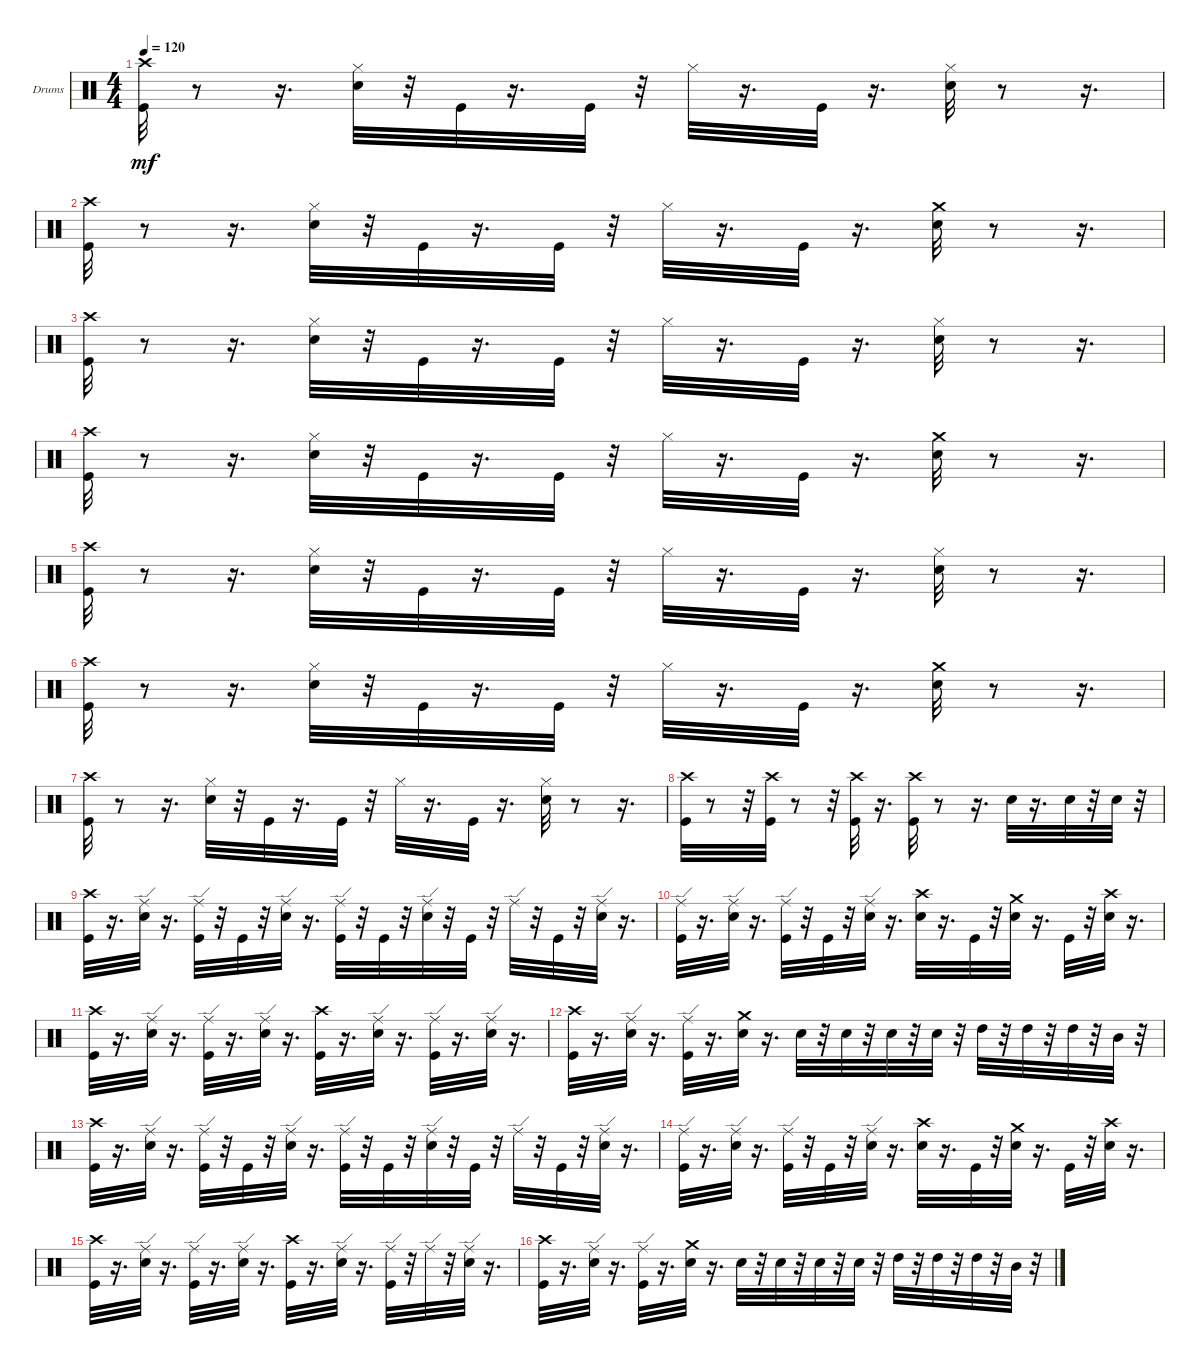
\bracketExtendMode groupsimilarinstruments
\firstSystemTrackNameOrientation horizontal
\otherSystemsTrackNameOrientation horizontal
\track ("" "Drums") {instrument percussion}
\staff {score}
\articulation defaults
\ts (4 4)
\tempo 120
\clef neutral
\ks c
("Crash high (hit)" "Kick (hit)").32{dy mf} r.8 r.16{d} ("Snare (hit) 2" "Hi-Hat (closed)").32 r.32 "Kick (hit)".32 r.16{d} "Kick (hit)".32 r.32 "Hi-Hat (closed)".32 r.16{d} "Kick (hit)".32 r.16{d} ("Snare (hit) 2" "Hi-Hat (closed)").32 r.8 r.16{d} |
("Crash high (hit)" "Kick (hit)").32 r.8 r.16{d} ("Snare (hit) 2" "Hi-Hat (closed)").32 r.32 "Kick (hit)".32 r.16{d} "Kick (hit)".32 r.32 "Hi-Hat (closed)".32 r.16{d} "Kick (hit)".32 r.16{d} ("Crash medium (hit)" "Snare (hit) 2").32 r.8 r.16{d} |
("Crash high (hit)" "Kick (hit)").32 r.8 r.16{d} ("Snare (hit) 2" "Hi-Hat (closed)").32 r.32 "Kick (hit)".32 r.16{d} "Kick (hit)".32 r.32 "Hi-Hat (closed)".32 r.16{d} "Kick (hit)".32 r.16{d} ("Snare (hit) 2" "Hi-Hat (closed)").32 r.8 r.16{d} |
("Crash high (hit)" "Kick (hit)").32 r.8 r.16{d} ("Snare (hit) 2" "Hi-Hat (closed)").32 r.32 "Kick (hit)".32 r.16{d} "Kick (hit)".32 r.32 "Hi-Hat (closed)".32 r.16{d} "Kick (hit)".32 r.16{d} ("Crash medium (hit)" "Snare (hit) 2").32 r.8 r.16{d} |
("Crash high (hit)" "Kick (hit)").32 r.8 r.16{d} ("Snare (hit) 2" "Hi-Hat (closed)").32 r.32 "Kick (hit)".32 r.16{d} "Kick (hit)".32 r.32 "Hi-Hat (closed)".32 r.16{d} "Kick (hit)".32 r.16{d} ("Snare (hit) 2" "Hi-Hat (closed)").32 r.8 r.16{d} |
("Crash high (hit)" "Kick (hit)").32 r.8 r.16{d} ("Snare (hit) 2" "Hi-Hat (closed)").32 r.32 "Kick (hit)".32 r.16{d} "Kick (hit)".32 r.32 "Hi-Hat (closed)".32 r.16{d} "Kick (hit)".32 r.16{d} ("Crash medium (hit)" "Snare (hit) 2").32 r.8 r.16{d} |
("Crash high (hit)" "Kick (hit)").32 r.8 r.16{d} ("Snare (hit) 2" "Hi-Hat (closed)").32 r.32 "Kick (hit)".32 r.16{d} "Kick (hit)".32 r.32 "Hi-Hat (closed)".32 r.16{d} "Kick (hit)".32 r.16{d} ("Snare (hit) 2" "Hi-Hat (closed)").32 r.8 r.16{d} |
("Crash high (hit)" "Kick (hit)").32 r.8 r.32 ("Crash high (hit)" "Kick (hit)").32 r.8 r.32 ("Crash high (hit)" "Kick (hit)").32 r.16{d} ("Crash high (hit)" "Kick (hit)").32 r.8 r.16{d} "Snare (hit) 2".32 r.16{d} "Snare (hit) 2".32 r.32 "Snare (hit) 2".32 r.32 |
("Crash high (hit)" "Kick (hit)").32 r.16{d} ("Ride (edge)" "Snare (hit) 2").32 r.16{d} ("Ride (edge)" "Kick (hit)").32 r.32 "Kick (hit)".32 r.32 ("Ride (edge)" "Snare (hit) 2").32 r.16{d} ("Ride (edge)" "Kick (hit)").32 r.32 "Kick (hit)".32 r.32 ("Ride (edge)" "Snare (hit) 2").32 r.32 "Kick (hit)".32 r.32 "Ride (edge)".32 r.32 "Kick (hit)".32 r.32 ("Ride (edge)" "Snare (hit) 2").32 r.16{d} |
("Ride (edge)" "Kick (hit)").32 r.16{d} ("Ride (edge)" "Snare (hit) 2").32 r.16{d} ("Ride (edge)" "Kick (hit)").32 r.32 "Kick (hit)".32 r.32 ("Ride (edge)" "Snare (hit) 2").32 r.16{d} ("Crash high (hit)" "Snare (hit) 2").32 r.16{d} "Kick (hit)".32 r.32 ("Crash medium (hit)" "Snare (hit) 2").32 r.16{d} "Kick (hit)".32 r.32 ("Crash high (hit)" "Snare (hit) 2").32 r.16{d} |
("Crash high (hit)" "Kick (hit)").32 r.16{d} ("Snare (hit) 2" "Ride (edge)").32 r.16{d} ("Ride (edge)" "Kick (hit)").32 r.16{d} ("Snare (hit) 2" "Ride (edge)").32 r.16{d} ("Kick (hit)" "Crash high (hit)").32 r.16{d} ("Ride (edge)" "Snare (hit) 2").32 r.16{d} ("Kick (hit)" "Ride (edge)").32 r.16{d} ("Snare (hit) 2" "Ride (edge)").32 r.16{d} |
("Crash high (hit)" "Kick (hit)").32 r.16{d} ("Ride (edge)" "Snare (hit) 2").32 r.16{d} ("Ride (edge)" "Kick (hit)").32 r.16{d} ("Crash medium (hit)" "Snare (hit) 2").32 r.16{d} "Snare (hit) 2".32 r.32 "Snare (hit) 2".32 r.32 "Snare (hit) 2".32 r.32 "Snare (hit) 2".32 r.32 "High Tom (hit)".32 r.32 "High Tom (hit)".32 r.32 "High Tom (hit)".32 r.32 "Mid Tom (hit)".32 r.32 |
("Crash high (hit)" "Kick (hit)").32 r.16{d} ("Ride (edge)" "Snare (hit) 2").32 r.16{d} ("Ride (edge)" "Kick (hit)").32 r.32 "Kick (hit)".32 r.32 ("Ride (edge)" "Snare (hit) 2").32 r.16{d} ("Ride (edge)" "Kick (hit)").32 r.32 "Kick (hit)".32 r.32 ("Ride (edge)" "Snare (hit) 2").32 r.32 "Kick (hit)".32 r.32 "Ride (edge)".32 r.32 "Kick (hit)".32 r.32 ("Ride (edge)" "Snare (hit) 2").32 r.16{d} |
("Ride (edge)" "Kick (hit)").32 r.16{d} ("Ride (edge)" "Snare (hit) 2").32 r.16{d} ("Ride (edge)" "Kick (hit)").32 r.32 "Kick (hit)".32 r.32 ("Ride (edge)" "Snare (hit) 2").32 r.16{d} ("Crash high (hit)" "Snare (hit) 2").32 r.16{d} "Kick (hit)".32 r.32 ("Crash medium (hit)" "Snare (hit) 2").32 r.16{d} "Kick (hit)".32 r.32 ("Crash high (hit)" "Snare (hit) 2").32 r.16{d} |
("Crash high (hit)" "Kick (hit)").32 r.16{d} ("Snare (hit) 2" "Ride (edge)").32 r.16{d} ("Ride (edge)" "Kick (hit)").32 r.16{d} ("Snare (hit) 2" "Ride (edge)").32 r.16{d} ("Kick (hit)" "Crash high (hit)").32 r.16{d} ("Ride (edge)" "Snare (hit) 2").32 r.16{d} ("Kick (hit)" "Ride (edge)").32 r.32 "Ride (edge)".32 r.32 ("Snare (hit) 2" "Ride (edge)").32 r.16{d} |
("Crash high (hit)" "Kick (hit)").32 r.16{d} ("Ride (edge)" "Snare (hit) 2").32 r.16{d} ("Ride (edge)" "Kick (hit)").32 r.16{d} ("Crash medium (hit)" "Snare (hit) 2").32 r.16{d} "Snare (hit) 2".32 r.32 "Snare (hit) 2".32 r.32 "Snare (hit) 2".32 r.32 "Snare (hit) 2".32 r.32 "High Tom (hit)".32 r.32 "High Tom (hit)".32 r.32 "High Tom (hit)".32 r.32 "Mid Tom (hit)".32 r.32
